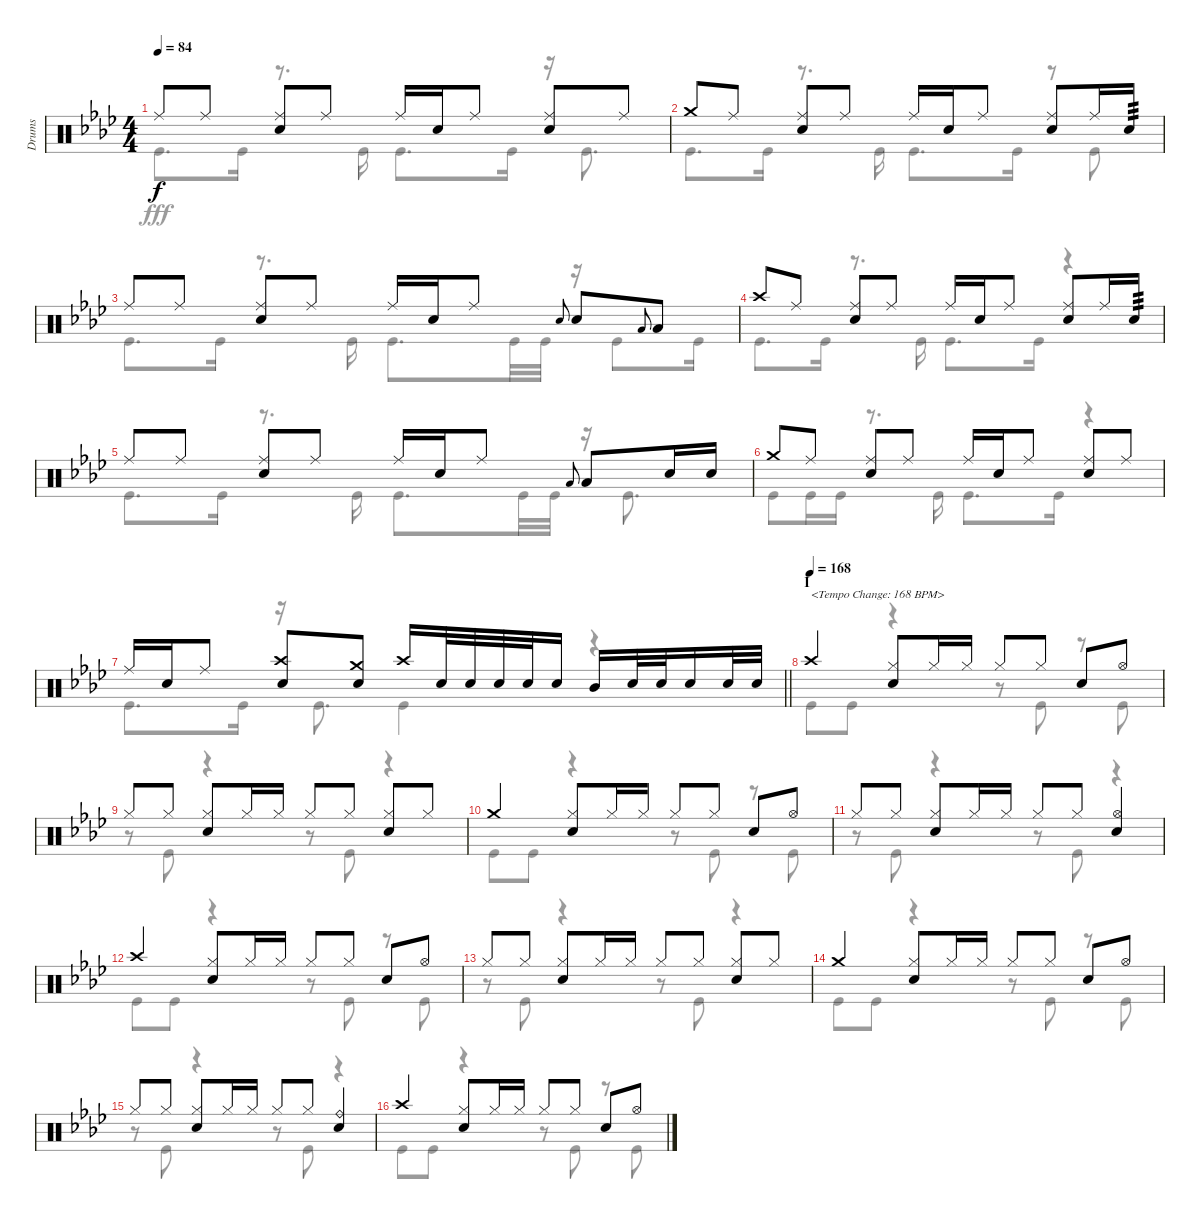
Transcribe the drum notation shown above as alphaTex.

\track ("Drums" "Drums") {instrument percussion}
\staff {score}
\articulation defaults
\voice
\ts (4 4)
\tempo 84
\clef neutral
\ks ab "Ride (middle)".8{dy f} "Ride (middle)".8
("Ride (middle)" "Snare (hit) 2").8 "Ride (middle)".8 "Ride (middle)".16 "Snare (hit) 2".16 "Ride (middle)".8 ("Ride (middle)" "Snare (hit) 2").8 "Ride (middle)".8 |
"Crash medium (hit)".8 "Ride (middle)".8 ("Ride (middle)" "Snare (hit) 2").8 "Ride (middle)".8 "Ride (middle)".16 "Snare (hit) 2".16 "Ride (middle)".8 ("Ride (middle)" "Snare (hit) 2").8 "Ride (middle)".16 "Snare (hit) 2".16{tp 3} |
"Ride (middle)".8 "Ride (middle)".8 ("Ride (middle)" "Snare (hit) 2").8 "Ride (middle)".8 "Ride (middle)".16 "Snare (hit) 2".16 "Ride (middle)".8 "Snare (hit) 2".8{gr onbeat} "Snare (hit) 2".8 "Low Tom (hit)".8{gr onbeat} "Low Tom (hit)".8 |
"Crash high (hit)".8 "Ride (middle)".8 ("Ride (middle)" "Snare (hit) 2").8 "Ride (middle)".8 "Ride (middle)".16 "Snare (hit) 2".16 "Ride (middle)".8 ("Ride (middle)" "Snare (hit) 2").8 "Ride (middle)".16 "Snare (hit) 2".16{tp 3} |
"Ride (middle)".8 "Ride (middle)".8 ("Ride (middle)" "Snare (hit) 2").8 "Ride (middle)".8 "Ride (middle)".16 "Snare (hit) 2".16 "Ride (middle)".8 "Low Tom (hit)".8{gr onbeat} "Low Tom (hit)".8 "Snare (hit) 2".16 "Snare (hit) 2".16 |
"Crash medium (hit)".8 "Ride (middle)".8 ("Ride (middle)" "Snare (hit) 2").8 "Ride (middle)".8 "Ride (middle)".16 "Snare (hit) 2".16 "Ride (middle)".8 ("Ride (middle)" "Snare (hit) 2").8 "Ride (middle)".8 |
\barLineRight lightlight "Ride (middle)".16 "Snare (hit) 2".16 "Ride (middle)".8
("Crash high (hit)" "Snare (hit) 2").8 ("Crash medium (hit)" "Snare (hit) 2").8 "Crash high (hit)".16 "Snare (hit) 2".32 "Snare (hit) 2".32 "Snare (hit) 2".32 "Snare (hit) 2".32 "Snare (hit) 2".16 "Mid Tom (hit)".16 "Snare (hit) 2".32 "Snare (hit) 2".32 "Snare (hit) 2".16 "Snare (hit) 2".32 "Snare (hit) 2".32 |
\section ("" "I")
\tempo (168)
"Crash high (hit)".4{txt "<Tempo Change: 168 BPM>"} ("Hi-Hat (closed)" "Snare (hit) 2").8 "Hi-Hat (closed)".16 "Hi-Hat (closed)".16 "Hi-Hat (closed)".8 "Hi-Hat (closed)".8 "Snare (hit) 2".8 "Hi-Hat (open)".8 |
"Hi-Hat (closed)".8 "Hi-Hat (closed)".8 ("Hi-Hat (closed)" "Snare (hit) 2").8 "Hi-Hat (closed)".16 "Hi-Hat (closed)".16 "Hi-Hat (closed)".8 "Hi-Hat (closed)".8 ("Hi-Hat (closed)" "Snare (hit) 2").8 "Hi-Hat (closed)".8 |
"Crash medium (hit)".4 ("Hi-Hat (closed)" "Snare (hit) 2").8 "Hi-Hat (closed)".16 "Hi-Hat (closed)".16 "Hi-Hat (closed)".8 "Hi-Hat (closed)".8 "Snare (hit) 2".8 "Hi-Hat (open)".8 |
"Hi-Hat (closed)".8 "Hi-Hat (closed)".8 ("Hi-Hat (closed)" "Snare (hit) 2").8 "Hi-Hat (closed)".16 "Hi-Hat (closed)".16 "Hi-Hat (closed)".8 "Hi-Hat (closed)".8 ("Hi-Hat (open)" "Snare (hit) 2").4 |
"Crash high (hit)".4 ("Hi-Hat (closed)" "Snare (hit) 2").8 "Hi-Hat (closed)".16 "Hi-Hat (closed)".16 "Hi-Hat (closed)".8 "Hi-Hat (closed)".8 "Snare (hit) 2".8 "Hi-Hat (open)".8 |
"Hi-Hat (closed)".8 "Hi-Hat (closed)".8 ("Hi-Hat (closed)" "Snare (hit) 2").8 "Hi-Hat (closed)".16 "Hi-Hat (closed)".16 "Hi-Hat (closed)".8 "Hi-Hat (closed)".8 ("Hi-Hat (closed)" "Snare (hit) 2").8 "Hi-Hat (closed)".8 |
"Crash medium (hit)".4 ("Hi-Hat (closed)" "Snare (hit) 2").8 "Hi-Hat (closed)".16 "Hi-Hat (closed)".16 "Hi-Hat (closed)".8 "Hi-Hat (closed)".8 "Snare (hit) 2".8 "Hi-Hat (open)".8 |
"Hi-Hat (closed)".8 "Hi-Hat (closed)".8 ("Hi-Hat (closed)" "Snare (hit) 2").8 "Hi-Hat (closed)".16 "Hi-Hat (closed)".16 "Hi-Hat (closed)".8 "Hi-Hat (closed)".8 ("Ride (bell)" "Snare (hit) 2").4 |
"Crash high (hit)".4 ("Hi-Hat (closed)" "Snare (hit) 2").8 "Hi-Hat (closed)".16 "Hi-Hat (closed)".16 "Hi-Hat (closed)".8 "Hi-Hat (closed)".8 "Snare (hit) 2".8 "Hi-Hat (open)".8
\voice
\clef neutral
\ottava regular
\simile none
\ks ab "Kick (hit)".8{d dy fff} "Kick (hit)".16
r.8{d} "Kick (hit)".16 "Kick (hit)".8{d} "Kick (hit)".16 r.16 "Kick (hit)".8{d} |
"Kick (hit)".8{d} "Kick (hit)".16 r.8{d} "Kick (hit)".16 "Kick (hit)".8{d} "Kick (hit)".16 r.8 "Kick (hit)".8 |
"Kick (hit)".8{d} "Kick (hit)".16 r.8{d} "Kick (hit)".16 "Kick (hit)".8{d} "Kick (hit)".32 "Kick (hit)".32 r.16 "Kick (hit)".8 "Kick (hit)".16 |
"Kick (hit)".8{d} "Kick (hit)".16 r.8{d} "Kick (hit)".16 "Kick (hit)".8{d} "Kick (hit)".16 r.4 |
"Kick (hit)".8{d} "Kick (hit)".16 r.8{d} "Kick (hit)".16 "Kick (hit)".8{d} "Kick (hit)".32 "Kick (hit)".32 r.16 "Kick (hit)".8{d} |
"Kick (hit)".8 "Kick (hit)".16 "Kick (hit)".16 r.8{d} "Kick (hit)".16 "Kick (hit)".8{d} "Kick (hit)".16 r.4 |
\barLineRight lightlight "Kick (hit)".8{d} "Kick (hit)".16
r.16 "Kick (hit)".8{d} "Kick (hit)".4 r.4 |
"Kick (hit)".8 "Kick (hit)".8 r.4 r.8 "Kick (hit)".8 r.8 "Kick (hit)".8 |
r.8 "Kick (hit)".8 r.4 r.8 "Kick (hit)".8 r.4 |
"Kick (hit)".8 "Kick (hit)".8 r.4 r.8 "Kick (hit)".8 r.8 "Kick (hit)".8 |
r.8 "Kick (hit)".8 r.4 r.8 "Kick (hit)".8 r.4 |
"Kick (hit)".8 "Kick (hit)".8 r.4 r.8 "Kick (hit)".8 r.8 "Kick (hit)".8 |
r.8 "Kick (hit)".8 r.4 r.8 "Kick (hit)".8 r.4 |
"Kick (hit)".8 "Kick (hit)".8 r.4 r.8 "Kick (hit)".8 r.8 "Kick (hit)".8 |
r.8 "Kick (hit)".8 r.4 r.8 "Kick (hit)".8 r.4 |
"Kick (hit)".8 "Kick (hit)".8 r.4 r.8 "Kick (hit)".8 r.8 "Kick (hit)".8
